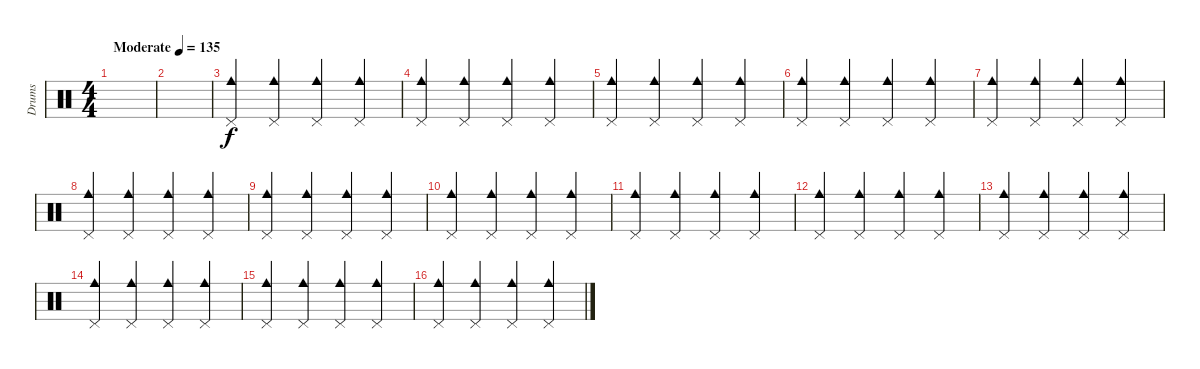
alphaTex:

\track ("Drums" "Drums") {instrument percussion}
\staff {score}
\articulation defaults
\ts (4 4)
\tempo (135 "Moderate")
\clef neutral
\ks c
|
|
("Cowbell medium (hit)" "Pedal Hi-Hat (hit)").4 ("Cowbell medium (hit)" "Pedal Hi-Hat (hit)").4 ("Cowbell medium (hit)" "Pedal Hi-Hat (hit)").4 ("Cowbell medium (hit)" "Pedal Hi-Hat (hit)").4 |
("Cowbell medium (hit)" "Pedal Hi-Hat (hit)").4 ("Cowbell medium (hit)" "Pedal Hi-Hat (hit)").4 ("Cowbell medium (hit)" "Pedal Hi-Hat (hit)").4 ("Cowbell medium (hit)" "Pedal Hi-Hat (hit)").4 |
("Cowbell medium (hit)" "Pedal Hi-Hat (hit)").4 ("Cowbell medium (hit)" "Pedal Hi-Hat (hit)").4 ("Cowbell medium (hit)" "Pedal Hi-Hat (hit)").4 ("Cowbell medium (hit)" "Pedal Hi-Hat (hit)").4 |
("Cowbell medium (hit)" "Pedal Hi-Hat (hit)").4 ("Cowbell medium (hit)" "Pedal Hi-Hat (hit)").4 ("Cowbell medium (hit)" "Pedal Hi-Hat (hit)").4 ("Cowbell medium (hit)" "Pedal Hi-Hat (hit)").4 |
("Cowbell medium (hit)" "Pedal Hi-Hat (hit)").4 ("Cowbell medium (hit)" "Pedal Hi-Hat (hit)").4 ("Cowbell medium (hit)" "Pedal Hi-Hat (hit)").4 ("Cowbell medium (hit)" "Pedal Hi-Hat (hit)").4 |
("Cowbell medium (hit)" "Pedal Hi-Hat (hit)").4 ("Cowbell medium (hit)" "Pedal Hi-Hat (hit)").4 ("Cowbell medium (hit)" "Pedal Hi-Hat (hit)").4 ("Cowbell medium (hit)" "Pedal Hi-Hat (hit)").4 |
("Cowbell medium (hit)" "Pedal Hi-Hat (hit)").4 ("Cowbell medium (hit)" "Pedal Hi-Hat (hit)").4 ("Cowbell medium (hit)" "Pedal Hi-Hat (hit)").4 ("Cowbell medium (hit)" "Pedal Hi-Hat (hit)").4 |
("Cowbell medium (hit)" "Pedal Hi-Hat (hit)").4 ("Cowbell medium (hit)" "Pedal Hi-Hat (hit)").4 ("Cowbell medium (hit)" "Pedal Hi-Hat (hit)").4 ("Cowbell medium (hit)" "Pedal Hi-Hat (hit)").4 |
("Cowbell medium (hit)" "Pedal Hi-Hat (hit)").4 ("Cowbell medium (hit)" "Pedal Hi-Hat (hit)").4 ("Cowbell medium (hit)" "Pedal Hi-Hat (hit)").4 ("Cowbell medium (hit)" "Pedal Hi-Hat (hit)").4 |
("Cowbell medium (hit)" "Pedal Hi-Hat (hit)").4 ("Cowbell medium (hit)" "Pedal Hi-Hat (hit)").4 ("Cowbell medium (hit)" "Pedal Hi-Hat (hit)").4 ("Cowbell medium (hit)" "Pedal Hi-Hat (hit)").4 |
("Cowbell medium (hit)" "Pedal Hi-Hat (hit)").4 ("Cowbell medium (hit)" "Pedal Hi-Hat (hit)").4 ("Cowbell medium (hit)" "Pedal Hi-Hat (hit)").4 ("Cowbell medium (hit)" "Pedal Hi-Hat (hit)").4 |
("Cowbell medium (hit)" "Pedal Hi-Hat (hit)").4 ("Cowbell medium (hit)" "Pedal Hi-Hat (hit)").4 ("Cowbell medium (hit)" "Pedal Hi-Hat (hit)").4 ("Cowbell medium (hit)" "Pedal Hi-Hat (hit)").4 |
("Cowbell medium (hit)" "Pedal Hi-Hat (hit)").4 ("Cowbell medium (hit)" "Pedal Hi-Hat (hit)").4 ("Cowbell medium (hit)" "Pedal Hi-Hat (hit)").4 ("Cowbell medium (hit)" "Pedal Hi-Hat (hit)").4 |
("Cowbell medium (hit)" "Pedal Hi-Hat (hit)").4 ("Cowbell medium (hit)" "Pedal Hi-Hat (hit)").4 ("Cowbell medium (hit)" "Pedal Hi-Hat (hit)").4 ("Cowbell medium (hit)" "Pedal Hi-Hat (hit)").4
